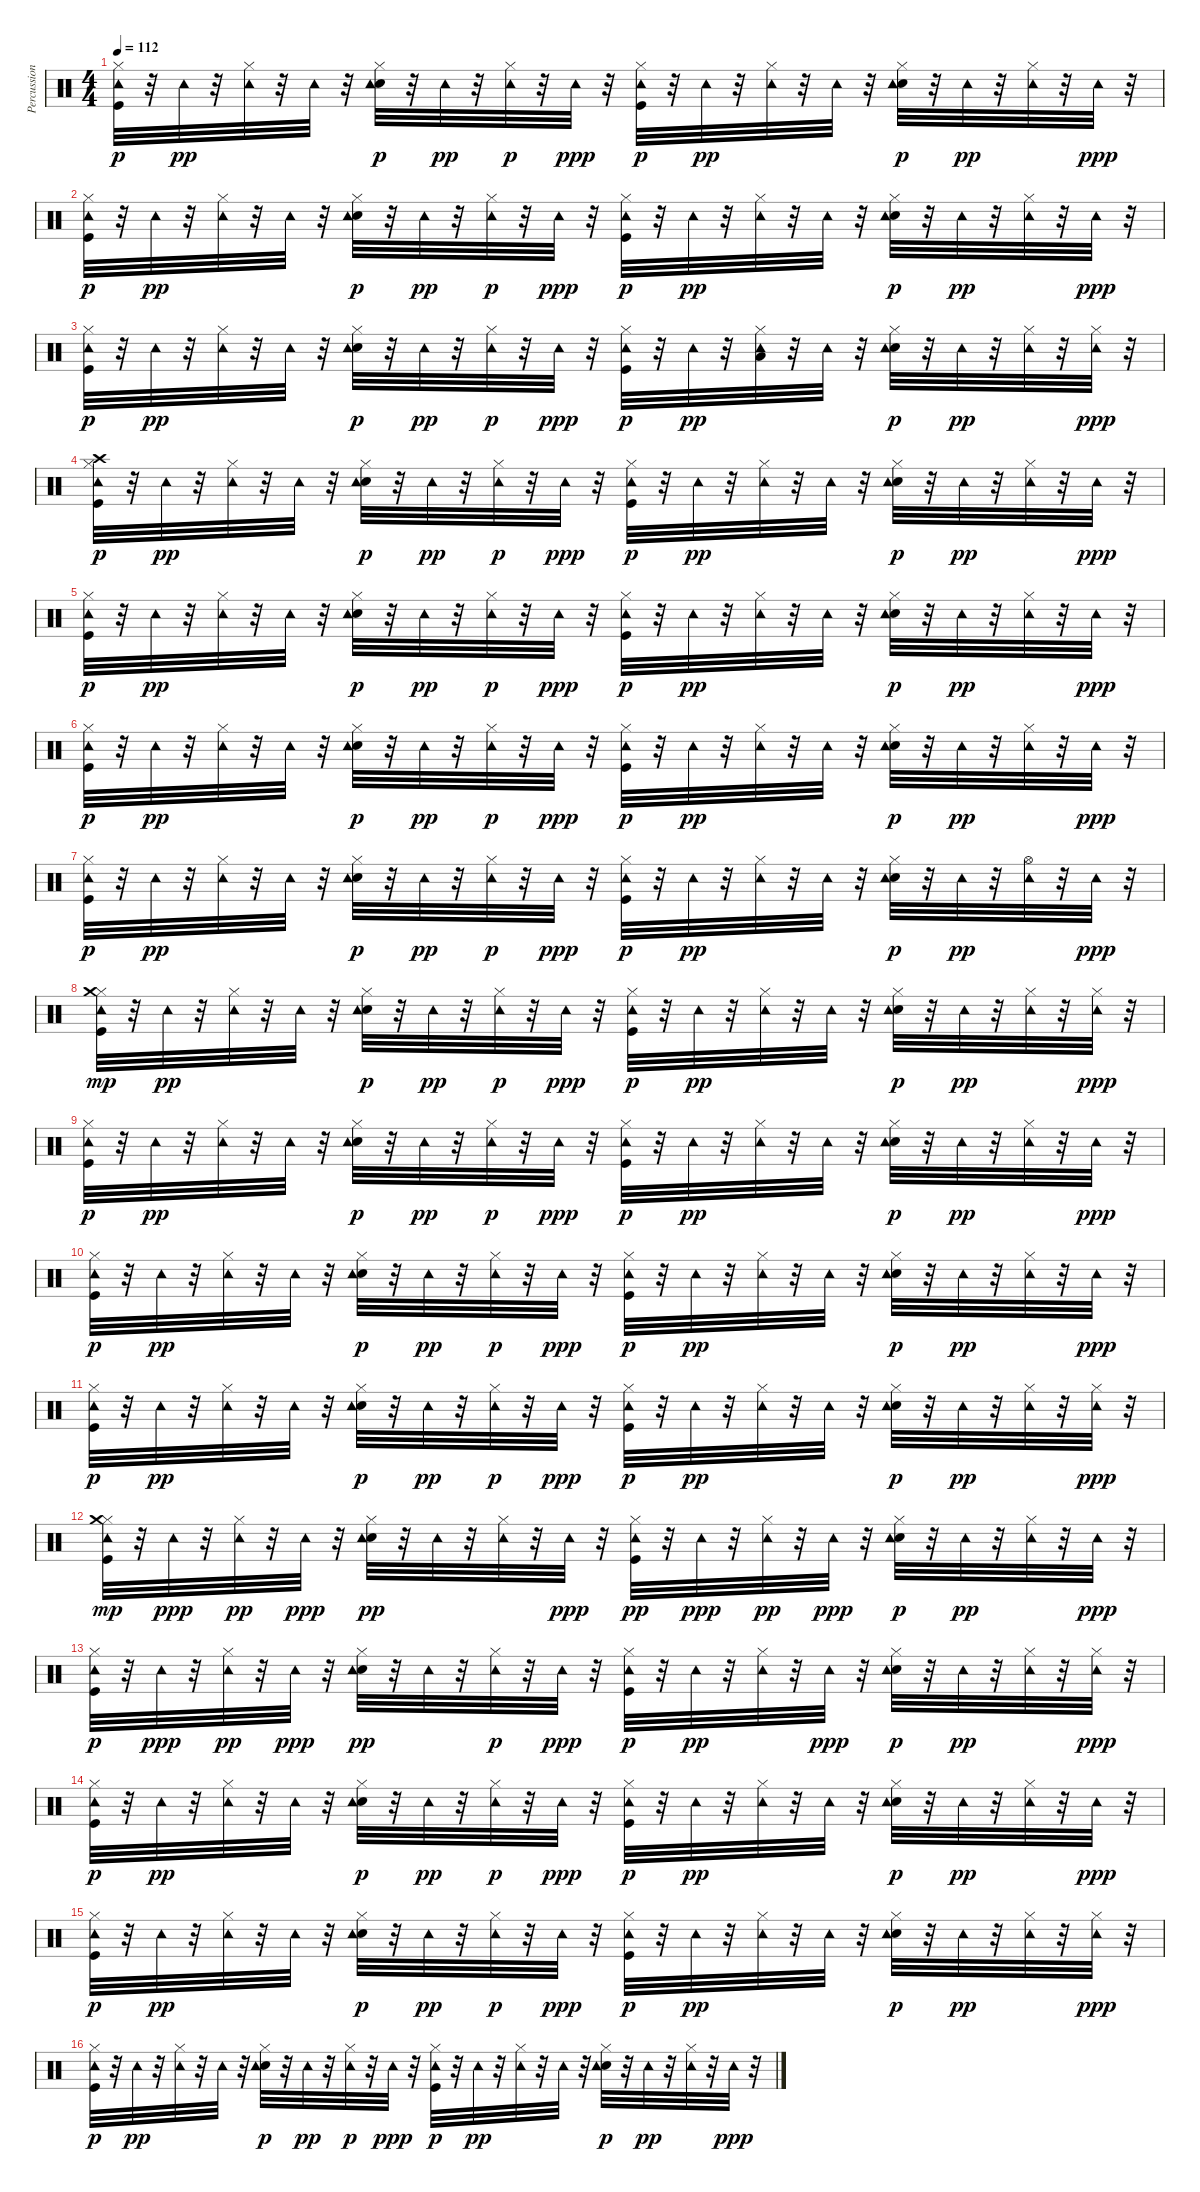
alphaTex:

\track ("Percussioni" "Percussion") {instrument percussion}
\staff {score}
\articulation defaults
\ts (4 4)
\tempo 112
\clef neutral
\ks c
("Kick (hit)" "Hi-Hat (closed)" "Tambourine (hit)").32{dy p} r.32 "Tambourine (hit)".32{dy pp} r.32 ("Hi-Hat (closed)" "Tambourine (hit)").32 r.32 "Tambourine (hit)".32 r.32 ("Electric Snare (hit)" "Hi-Hat (closed)" "Tambourine (hit)").32{dy p} r.32 "Tambourine (hit)".32{dy pp} r.32 ("Hi-Hat (closed)" "Tambourine (hit)").32{dy p} r.32 "Tambourine (hit)".32{dy ppp} r.32 ("Kick (hit)" "Hi-Hat (closed)" "Tambourine (hit)").32{dy p} r.32 "Tambourine (hit)".32{dy pp} r.32 ("Hi-Hat (closed)" "Tambourine (hit)").32 r.32 "Tambourine (hit)".32 r.32 ("Electric Snare (hit)" "Hi-Hat (closed)" "Tambourine (hit)").32{dy p} r.32 "Tambourine (hit)".32{dy pp} r.32 ("Hi-Hat (closed)" "Tambourine (hit)").32 r.32 "Tambourine (hit)".32{dy ppp} r.32 |
("Kick (hit)" "Hi-Hat (closed)" "Tambourine (hit)").32{dy p} r.32 "Tambourine (hit)".32{dy pp} r.32 ("Hi-Hat (closed)" "Tambourine (hit)").32 r.32 "Tambourine (hit)".32 r.32 ("Electric Snare (hit)" "Hi-Hat (closed)" "Tambourine (hit)").32{dy p} r.32 "Tambourine (hit)".32{dy pp} r.32 ("Hi-Hat (closed)" "Tambourine (hit)").32{dy p} r.32 "Tambourine (hit)".32{dy ppp} r.32 ("Kick (hit)" "Hi-Hat (closed)" "Tambourine (hit)").32{dy p} r.32 "Tambourine (hit)".32{dy pp} r.32 ("Hi-Hat (closed)" "Tambourine (hit)").32 r.32 "Tambourine (hit)".32 r.32 ("Electric Snare (hit)" "Hi-Hat (closed)" "Tambourine (hit)").32{dy p} r.32 "Tambourine (hit)".32{dy pp} r.32 ("Hi-Hat (closed)" "Tambourine (hit)").32 r.32 "Tambourine (hit)".32{dy ppp} r.32 |
("Kick (hit)" "Hi-Hat (closed)" "Tambourine (hit)").32{dy p} r.32 "Tambourine (hit)".32{dy pp} r.32 ("Hi-Hat (closed)" "Tambourine (hit)").32 r.32 "Tambourine (hit)".32 r.32 ("Electric Snare (hit)" "Hi-Hat (closed)" "Tambourine (hit)").32{dy p} r.32 "Tambourine (hit)".32{dy pp} r.32 ("Hi-Hat (closed)" "Tambourine (hit)").32{dy p} r.32 "Tambourine (hit)".32{dy ppp} r.32 ("Kick (hit)" "Hi-Hat (closed)" "Tambourine (hit)").32{dy p} r.32 "Tambourine (hit)".32{dy pp} r.32 ("Hi-Hat (closed)" "Low Tom (hit)" "Tambourine (hit)").32 r.32 "Tambourine (hit)".32 r.32 ("Electric Snare (hit)" "Hi-Hat (closed)" "Tambourine (hit)").32{dy p} r.32 "Tambourine (hit)".32{dy pp} r.32 ("Hi-Hat (closed)" "Tambourine (hit)").32 r.32 ("Hi-Hat (closed)" "Tambourine (hit)").32{dy ppp} r.32 |
("Kick (hit)" "Hi-Hat (closed)" "Crash high (hit)" "Tambourine (hit)").32{dy p} r.32 "Tambourine (hit)".32{dy pp} r.32 ("Hi-Hat (closed)" "Tambourine (hit)").32 r.32 "Tambourine (hit)".32 r.32 ("Electric Snare (hit)" "Hi-Hat (closed)" "Tambourine (hit)").32{dy p} r.32 "Tambourine (hit)".32{dy pp} r.32 ("Hi-Hat (closed)" "Tambourine (hit)").32{dy p} r.32 "Tambourine (hit)".32{dy ppp} r.32 ("Kick (hit)" "Hi-Hat (closed)" "Tambourine (hit)").32{dy p} r.32 "Tambourine (hit)".32{dy pp} r.32 ("Hi-Hat (closed)" "Tambourine (hit)").32 r.32 "Tambourine (hit)".32 r.32 ("Electric Snare (hit)" "Hi-Hat (closed)" "Tambourine (hit)").32{dy p} r.32 "Tambourine (hit)".32{dy pp} r.32 ("Hi-Hat (closed)" "Tambourine (hit)").32 r.32 "Tambourine (hit)".32{dy ppp} r.32 |
("Kick (hit)" "Hi-Hat (closed)" "Tambourine (hit)").32{dy p} r.32 "Tambourine (hit)".32{dy pp} r.32 ("Hi-Hat (closed)" "Tambourine (hit)").32 r.32 "Tambourine (hit)".32 r.32 ("Electric Snare (hit)" "Hi-Hat (closed)" "Tambourine (hit)").32{dy p} r.32 "Tambourine (hit)".32{dy pp} r.32 ("Hi-Hat (closed)" "Tambourine (hit)").32{dy p} r.32 "Tambourine (hit)".32{dy ppp} r.32 ("Kick (hit)" "Hi-Hat (closed)" "Tambourine (hit)").32{dy p} r.32 "Tambourine (hit)".32{dy pp} r.32 ("Hi-Hat (closed)" "Tambourine (hit)").32 r.32 "Tambourine (hit)".32 r.32 ("Electric Snare (hit)" "Hi-Hat (closed)" "Tambourine (hit)").32{dy p} r.32 "Tambourine (hit)".32{dy pp} r.32 ("Hi-Hat (closed)" "Tambourine (hit)").32 r.32 "Tambourine (hit)".32{dy ppp} r.32 |
("Kick (hit)" "Hi-Hat (closed)" "Tambourine (hit)").32{dy p} r.32 "Tambourine (hit)".32{dy pp} r.32 ("Hi-Hat (closed)" "Tambourine (hit)").32 r.32 "Tambourine (hit)".32 r.32 ("Electric Snare (hit)" "Hi-Hat (closed)" "Tambourine (hit)").32{dy p} r.32 "Tambourine (hit)".32{dy pp} r.32 ("Hi-Hat (closed)" "Tambourine (hit)").32{dy p} r.32 "Tambourine (hit)".32{dy ppp} r.32 ("Kick (hit)" "Hi-Hat (closed)" "Tambourine (hit)").32{dy p} r.32 "Tambourine (hit)".32{dy pp} r.32 ("Hi-Hat (closed)" "Tambourine (hit)").32 r.32 "Tambourine (hit)".32 r.32 ("Electric Snare (hit)" "Hi-Hat (closed)" "Tambourine (hit)").32{dy p} r.32 "Tambourine (hit)".32{dy pp} r.32 ("Hi-Hat (closed)" "Tambourine (hit)").32 r.32 "Tambourine (hit)".32{dy ppp} r.32 |
("Kick (hit)" "Hi-Hat (closed)" "Tambourine (hit)").32{dy p} r.32 "Tambourine (hit)".32{dy pp} r.32 ("Hi-Hat (closed)" "Tambourine (hit)").32 r.32 "Tambourine (hit)".32 r.32 ("Electric Snare (hit)" "Hi-Hat (closed)" "Tambourine (hit)").32{dy p} r.32 "Tambourine (hit)".32{dy pp} r.32 ("Hi-Hat (closed)" "Tambourine (hit)").32{dy p} r.32 "Tambourine (hit)".32{dy ppp} r.32 ("Kick (hit)" "Hi-Hat (closed)" "Tambourine (hit)").32{dy p} r.32 "Tambourine (hit)".32{dy pp} r.32 ("Hi-Hat (closed)" "Tambourine (hit)").32 r.32 "Tambourine (hit)".32 r.32 ("Electric Snare (hit)" "Hi-Hat (closed)" "Tambourine (hit)").32{dy p} r.32 "Tambourine (hit)".32{dy pp} r.32 ("Hi-Hat (open)" "Tambourine (hit)").32 r.32 "Tambourine (hit)".32{dy ppp} r.32 |
("Kick (hit)" "Hi-Hat (closed)" "Tambourine (hit)" "Crash medium (hit)").32{dy mp} r.32 "Tambourine (hit)".32{dy pp} r.32 ("Hi-Hat (closed)" "Tambourine (hit)").32 r.32 "Tambourine (hit)".32 r.32 ("Electric Snare (hit)" "Hi-Hat (closed)" "Tambourine (hit)").32{dy p} r.32 "Tambourine (hit)".32{dy pp} r.32 ("Hi-Hat (closed)" "Tambourine (hit)").32{dy p} r.32 "Tambourine (hit)".32{dy ppp} r.32 ("Kick (hit)" "Hi-Hat (closed)" "Tambourine (hit)").32{dy p} r.32 "Tambourine (hit)".32{dy pp} r.32 ("Hi-Hat (closed)" "Tambourine (hit)").32 r.32 "Tambourine (hit)".32 r.32 ("Electric Snare (hit)" "Hi-Hat (closed)" "Tambourine (hit)").32{dy p} r.32 "Tambourine (hit)".32{dy pp} r.32 ("Hi-Hat (closed)" "Tambourine (hit)").32 r.32 ("Hi-Hat (closed)" "Tambourine (hit)").32{dy ppp} r.32 |
("Kick (hit)" "Hi-Hat (closed)" "Tambourine (hit)").32{dy p} r.32 "Tambourine (hit)".32{dy pp} r.32 ("Hi-Hat (closed)" "Tambourine (hit)").32 r.32 "Tambourine (hit)".32 r.32 ("Electric Snare (hit)" "Hi-Hat (closed)" "Tambourine (hit)").32{dy p} r.32 "Tambourine (hit)".32{dy pp} r.32 ("Hi-Hat (closed)" "Tambourine (hit)").32{dy p} r.32 "Tambourine (hit)".32{dy ppp} r.32 ("Kick (hit)" "Hi-Hat (closed)" "Tambourine (hit)").32{dy p} r.32 "Tambourine (hit)".32{dy pp} r.32 ("Hi-Hat (closed)" "Tambourine (hit)").32 r.32 "Tambourine (hit)".32 r.32 ("Electric Snare (hit)" "Hi-Hat (closed)" "Tambourine (hit)").32{dy p} r.32 "Tambourine (hit)".32{dy pp} r.32 ("Hi-Hat (closed)" "Tambourine (hit)").32 r.32 "Tambourine (hit)".32{dy ppp} r.32 |
("Kick (hit)" "Hi-Hat (closed)" "Tambourine (hit)").32{dy p} r.32 "Tambourine (hit)".32{dy pp} r.32 ("Hi-Hat (closed)" "Tambourine (hit)").32 r.32 "Tambourine (hit)".32 r.32 ("Electric Snare (hit)" "Hi-Hat (closed)" "Tambourine (hit)").32{dy p} r.32 "Tambourine (hit)".32{dy pp} r.32 ("Hi-Hat (closed)" "Tambourine (hit)").32{dy p} r.32 "Tambourine (hit)".32{dy ppp} r.32 ("Kick (hit)" "Hi-Hat (closed)" "Tambourine (hit)").32{dy p} r.32 "Tambourine (hit)".32{dy pp} r.32 ("Hi-Hat (closed)" "Tambourine (hit)").32 r.32 "Tambourine (hit)".32 r.32 ("Electric Snare (hit)" "Hi-Hat (closed)" "Tambourine (hit)").32{dy p} r.32 "Tambourine (hit)".32{dy pp} r.32 ("Hi-Hat (closed)" "Tambourine (hit)").32 r.32 "Tambourine (hit)".32{dy ppp} r.32 |
("Kick (hit)" "Hi-Hat (closed)" "Tambourine (hit)").32{dy p} r.32 "Tambourine (hit)".32{dy pp} r.32 ("Hi-Hat (closed)" "Tambourine (hit)").32 r.32 "Tambourine (hit)".32 r.32 ("Electric Snare (hit)" "Hi-Hat (closed)" "Tambourine (hit)").32{dy p} r.32 "Tambourine (hit)".32{dy pp} r.32 ("Hi-Hat (closed)" "Tambourine (hit)").32{dy p} r.32 "Tambourine (hit)".32{dy ppp} r.32 ("Kick (hit)" "Hi-Hat (closed)" "Tambourine (hit)").32{dy p} r.32 "Tambourine (hit)".32{dy pp} r.32 ("Hi-Hat (closed)" "Tambourine (hit)").32 r.32 "Tambourine (hit)".32 r.32 ("Electric Snare (hit)" "Hi-Hat (closed)" "Tambourine (hit)").32{dy p} r.32 "Tambourine (hit)".32{dy pp} r.32 ("Hi-Hat (closed)" "Tambourine (hit)").32 r.32 ("Hi-Hat (closed)" "Tambourine (hit)").32{dy ppp} r.32 |
("Kick (hit)" "Hi-Hat (closed)" "Tambourine (hit)" "Crash medium (hit)").32{dy mp} r.32 "Tambourine (hit)".32{dy ppp} r.32 ("Hi-Hat (closed)" "Tambourine (hit)").32{dy pp} r.32 "Tambourine (hit)".32{dy ppp} r.32 ("Electric Snare (hit)" "Hi-Hat (closed)" "Tambourine (hit)").32{dy pp} r.32 "Tambourine (hit)".32 r.32 ("Hi-Hat (closed)" "Tambourine (hit)").32 r.32 "Tambourine (hit)".32{dy ppp} r.32 ("Kick (hit)" "Hi-Hat (closed)" "Tambourine (hit)").32{dy pp} r.32 "Tambourine (hit)".32{dy ppp} r.32 ("Hi-Hat (closed)" "Tambourine (hit)").32{dy pp} r.32 "Tambourine (hit)".32{dy ppp} r.32 ("Electric Snare (hit)" "Hi-Hat (closed)" "Tambourine (hit)").32{dy p} r.32 "Tambourine (hit)".32{dy pp} r.32 ("Hi-Hat (closed)" "Tambourine (hit)").32 r.32 "Tambourine (hit)".32{dy ppp} r.32 |
("Kick (hit)" "Hi-Hat (closed)" "Tambourine (hit)").32{dy p} r.32 "Tambourine (hit)".32{dy ppp} r.32 ("Hi-Hat (closed)" "Tambourine (hit)").32{dy pp} r.32 "Tambourine (hit)".32{dy ppp} r.32 ("Electric Snare (hit)" "Hi-Hat (closed)" "Tambourine (hit)").32{dy pp} r.32 "Tambourine (hit)".32 r.32 ("Hi-Hat (closed)" "Tambourine (hit)").32{dy p} r.32 "Tambourine (hit)".32{dy ppp} r.32 ("Kick (hit)" "Hi-Hat (closed)" "Tambourine (hit)").32{dy p} r.32 "Tambourine (hit)".32{dy pp} r.32 ("Hi-Hat (closed)" "Tambourine (hit)").32 r.32 "Tambourine (hit)".32{dy ppp} r.32 ("Electric Snare (hit)" "Hi-Hat (closed)" "Tambourine (hit)").32{dy p} r.32 "Tambourine (hit)".32{dy pp} r.32 ("Hi-Hat (closed)" "Tambourine (hit)").32 r.32 ("Hi-Hat (closed)" "Tambourine (hit)").32{dy ppp} r.32 |
("Kick (hit)" "Hi-Hat (closed)" "Tambourine (hit)").32{dy p} r.32 "Tambourine (hit)".32{dy pp} r.32 ("Hi-Hat (closed)" "Tambourine (hit)").32 r.32 "Tambourine (hit)".32 r.32 ("Electric Snare (hit)" "Hi-Hat (closed)" "Tambourine (hit)").32{dy p} r.32 "Tambourine (hit)".32{dy pp} r.32 ("Hi-Hat (closed)" "Tambourine (hit)").32{dy p} r.32 "Tambourine (hit)".32{dy ppp} r.32 ("Kick (hit)" "Hi-Hat (closed)" "Tambourine (hit)").32{dy p} r.32 "Tambourine (hit)".32{dy pp} r.32 ("Hi-Hat (closed)" "Tambourine (hit)").32 r.32 "Tambourine (hit)".32 r.32 ("Electric Snare (hit)" "Hi-Hat (closed)" "Tambourine (hit)").32{dy p} r.32 "Tambourine (hit)".32{dy pp} r.32 ("Hi-Hat (closed)" "Tambourine (hit)").32 r.32 "Tambourine (hit)".32{dy ppp} r.32 |
("Kick (hit)" "Hi-Hat (closed)" "Tambourine (hit)").32{dy p} r.32 "Tambourine (hit)".32{dy pp} r.32 ("Hi-Hat (closed)" "Tambourine (hit)").32 r.32 "Tambourine (hit)".32 r.32 ("Electric Snare (hit)" "Hi-Hat (closed)" "Tambourine (hit)").32{dy p} r.32 "Tambourine (hit)".32{dy pp} r.32 ("Hi-Hat (closed)" "Tambourine (hit)").32{dy p} r.32 "Tambourine (hit)".32{dy ppp} r.32 ("Kick (hit)" "Hi-Hat (closed)" "Tambourine (hit)").32{dy p} r.32 "Tambourine (hit)".32{dy pp} r.32 ("Hi-Hat (closed)" "Tambourine (hit)").32 r.32 "Tambourine (hit)".32 r.32 ("Electric Snare (hit)" "Hi-Hat (closed)" "Tambourine (hit)").32{dy p} r.32 "Tambourine (hit)".32{dy pp} r.32 ("Hi-Hat (closed)" "Tambourine (hit)").32 r.32 ("Hi-Hat (closed)" "Tambourine (hit)").32{dy ppp} r.32 |
("Kick (hit)" "Hi-Hat (closed)" "Tambourine (hit)").32{dy p} r.32 "Tambourine (hit)".32{dy pp} r.32 ("Hi-Hat (closed)" "Tambourine (hit)").32 r.32 "Tambourine (hit)".32 r.32 ("Electric Snare (hit)" "Hi-Hat (closed)" "Tambourine (hit)").32{dy p} r.32 "Tambourine (hit)".32{dy pp} r.32 ("Hi-Hat (closed)" "Tambourine (hit)").32{dy p} r.32 "Tambourine (hit)".32{dy ppp} r.32 ("Kick (hit)" "Hi-Hat (closed)" "Tambourine (hit)").32{dy p} r.32 "Tambourine (hit)".32{dy pp} r.32 ("Hi-Hat (closed)" "Tambourine (hit)").32 r.32 "Tambourine (hit)".32 r.32 ("Electric Snare (hit)" "Hi-Hat (closed)" "Tambourine (hit)").32{dy p} r.32 "Tambourine (hit)".32{dy pp} r.32 ("Hi-Hat (closed)" "Tambourine (hit)").32 r.32 "Tambourine (hit)".32{dy ppp} r.32
